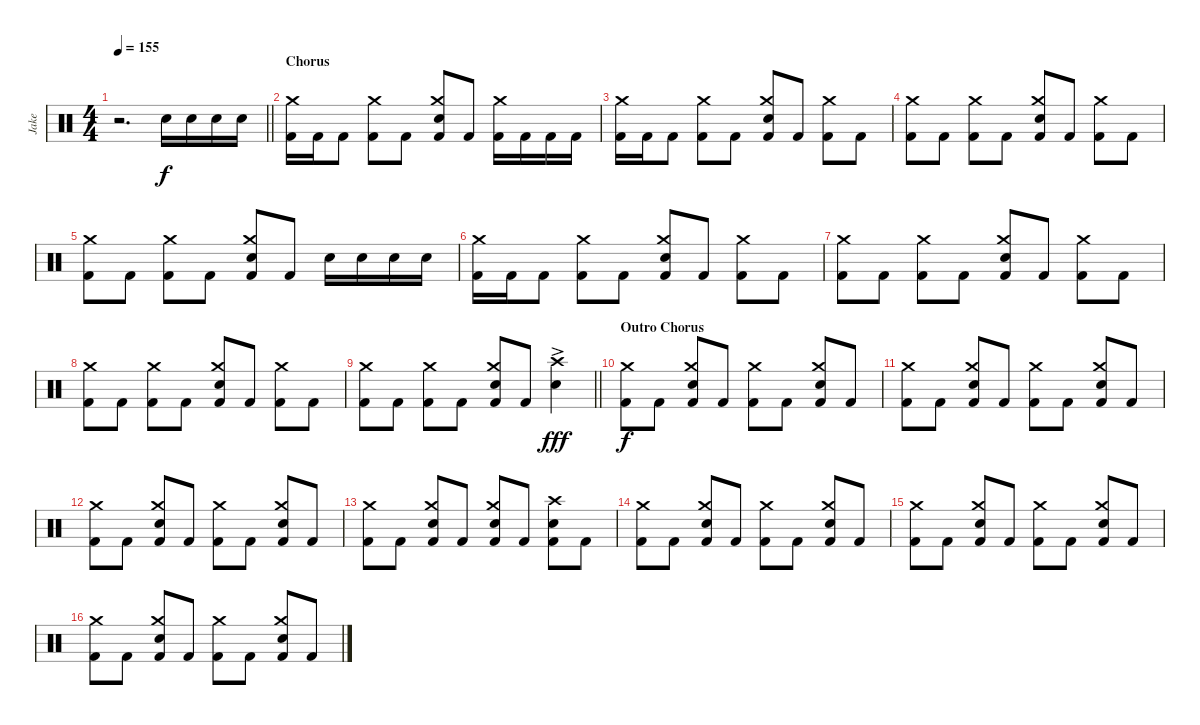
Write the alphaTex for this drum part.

\track ("Jake" "Jake") {instrument percussion}
\staff {score}
\articulation defaults
\ts (4 4)
\tempo 155
\clef neutral
\barLineRight lightlight
\ks c
r.2{d dy f} "Electric Snare (hit)".16 "Electric Snare (hit)".16 "Electric Snare (hit)".16 "Electric Snare (hit)".16 |
\section ("" "Chorus")
("Crash medium (hit)" "Kick (hit) 2").16 "Kick (hit) 2".16 "Kick (hit) 2".8 ("Crash medium (hit)" "Kick (hit) 2").8 "Kick (hit) 2".8 ("Crash medium (hit)" "Electric Snare (hit)" "Kick (hit) 2").8 "Kick (hit) 2".8 ("Crash medium (hit)" "Kick (hit) 2").16 "Kick (hit) 2".16 "Kick (hit) 2".16 "Kick (hit) 2".16 |
("Crash medium (hit)" "Kick (hit) 2").16 "Kick (hit) 2".16 "Kick (hit) 2".8 ("Crash medium (hit)" "Kick (hit) 2").8 "Kick (hit) 2".8 ("Crash medium (hit)" "Electric Snare (hit)" "Kick (hit) 2").8 "Kick (hit) 2".8 ("Crash medium (hit)" "Kick (hit) 2").8 "Kick (hit) 2".8 |
("Crash medium (hit)" "Kick (hit) 2").8 "Kick (hit) 2".8 ("Crash medium (hit)" "Kick (hit) 2").8 "Kick (hit) 2".8 ("Crash medium (hit)" "Electric Snare (hit)" "Kick (hit) 2").8 "Kick (hit) 2".8 ("Crash medium (hit)" "Kick (hit) 2").8 "Kick (hit) 2".8 |
("Crash medium (hit)" "Kick (hit) 2").8 "Kick (hit) 2".8 ("Crash medium (hit)" "Kick (hit) 2").8 "Kick (hit) 2".8 ("Crash medium (hit)" "Electric Snare (hit)" "Kick (hit) 2").8 "Kick (hit) 2".8 "Electric Snare (hit)".16 "Electric Snare (hit)".16 "Electric Snare (hit)".16 "Electric Snare (hit)".16 |
("Crash medium (hit)" "Kick (hit) 2").16 "Kick (hit) 2".16 "Kick (hit) 2".8 ("Crash medium (hit)" "Kick (hit) 2").8 "Kick (hit) 2".8 ("Crash medium (hit)" "Electric Snare (hit)" "Kick (hit) 2").8 "Kick (hit) 2".8 ("Crash medium (hit)" "Kick (hit) 2").8 "Kick (hit) 2".8 |
("Crash medium (hit)" "Kick (hit) 2").8 "Kick (hit) 2".8 ("Crash medium (hit)" "Kick (hit) 2").8 "Kick (hit) 2".8 ("Crash medium (hit)" "Electric Snare (hit)" "Kick (hit) 2").8 "Kick (hit) 2".8 ("Crash medium (hit)" "Kick (hit) 2").8 "Kick (hit) 2".8 |
("Crash medium (hit)" "Kick (hit) 2").8 "Kick (hit) 2".8 ("Crash medium (hit)" "Kick (hit) 2").8 "Kick (hit) 2".8 ("Crash medium (hit)" "Electric Snare (hit)" "Kick (hit) 2").8 "Kick (hit) 2".8 ("Crash medium (hit)" "Kick (hit) 2").8 "Kick (hit) 2".8 |
\barLineRight lightlight
("Crash medium (hit)" "Kick (hit) 2").8 "Kick (hit) 2".8 ("Crash medium (hit)" "Kick (hit) 2").8 "Kick (hit) 2".8 ("Crash medium (hit)" "Electric Snare (hit)" "Kick (hit) 2").8 "Kick (hit) 2".8 ("Crash high (hit)" "Electric Snare (hit)"{ac}).4{dy fff} |
\section ("" "Outro Chorus")
("Crash medium (hit)" "Kick (hit) 2").8{dy f} "Kick (hit) 2".8 ("Crash medium (hit)" "Electric Snare (hit)" "Kick (hit) 2").8 "Kick (hit) 2".8 ("Crash medium (hit)" "Kick (hit) 2").8 "Kick (hit) 2".8 ("Crash medium (hit)" "Electric Snare (hit)" "Kick (hit) 2").8 "Kick (hit) 2".8 |
("Crash medium (hit)" "Kick (hit) 2").8 "Kick (hit) 2".8 ("Crash medium (hit)" "Electric Snare (hit)" "Kick (hit) 2").8 "Kick (hit) 2".8 ("Crash medium (hit)" "Kick (hit) 2").8 "Kick (hit) 2".8 ("Crash medium (hit)" "Electric Snare (hit)" "Kick (hit) 2").8 "Kick (hit) 2".8 |
("Crash medium (hit)" "Kick (hit) 2").8 "Kick (hit) 2".8 ("Crash medium (hit)" "Electric Snare (hit)" "Kick (hit) 2").8 "Kick (hit) 2".8 ("Crash medium (hit)" "Kick (hit) 2").8 "Kick (hit) 2".8 ("Crash medium (hit)" "Electric Snare (hit)" "Kick (hit) 2").8 "Kick (hit) 2".8 |
("Crash medium (hit)" "Kick (hit) 2").8 "Kick (hit) 2".8 ("Crash medium (hit)" "Electric Snare (hit)" "Kick (hit) 2").8 "Kick (hit) 2".8 ("Crash medium (hit)" "Electric Snare (hit)" "Kick (hit) 2").8 "Kick (hit) 2".8 ("Crash high (hit)" "Electric Snare (hit)" "Kick (hit) 2").8 "Kick (hit) 2".8 |
("Crash medium (hit)" "Kick (hit) 2").8 "Kick (hit) 2".8 ("Crash medium (hit)" "Electric Snare (hit)" "Kick (hit) 2").8 "Kick (hit) 2".8 ("Crash medium (hit)" "Kick (hit) 2").8 "Kick (hit) 2".8 ("Crash medium (hit)" "Electric Snare (hit)" "Kick (hit) 2").8 "Kick (hit) 2".8 |
("Crash medium (hit)" "Kick (hit) 2").8 "Kick (hit) 2".8 ("Crash medium (hit)" "Electric Snare (hit)" "Kick (hit) 2").8 "Kick (hit) 2".8 ("Crash medium (hit)" "Kick (hit) 2").8 "Kick (hit) 2".8 ("Crash medium (hit)" "Electric Snare (hit)" "Kick (hit) 2").8 "Kick (hit) 2".8 |
("Crash medium (hit)" "Kick (hit) 2").8 "Kick (hit) 2".8 ("Crash medium (hit)" "Electric Snare (hit)" "Kick (hit) 2").8 "Kick (hit) 2".8 ("Crash medium (hit)" "Kick (hit) 2").8 "Kick (hit) 2".8 ("Crash medium (hit)" "Electric Snare (hit)" "Kick (hit) 2").8 "Kick (hit) 2".8
